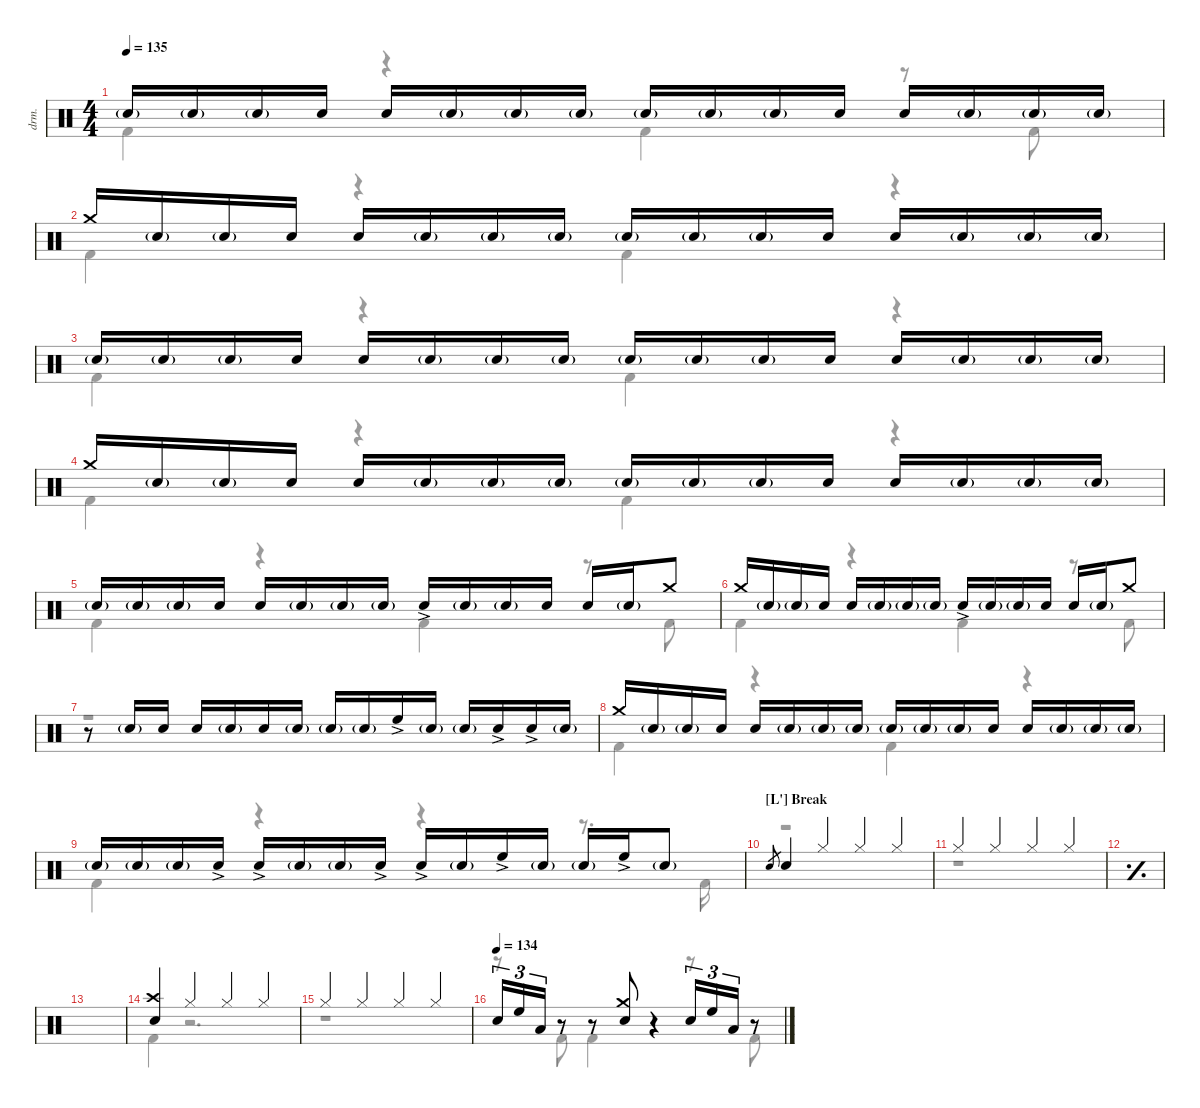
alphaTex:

\defaultSystemsLayout 4
\hideDynamics
\bracketExtendMode nobrackets
\track ("Drums" "drm.") {instrument percussion}
\staff {score}
\articulation defaults
\voice
\ts (4 4)
\tempo 135
\clef neutral
\ks c "Snare (hit) 2"{g}.16{dy mf} "Snare (hit) 2"{g}.16 "Snare (hit) 2"{g}.16 "Snare (hit) 2".16 "Snare (hit) 2".16 "Snare (hit) 2"{g}.16 "Snare (hit) 2"{g}.16 "Snare (hit) 2"{g}.16 "Snare (hit) 2"{g}.16 "Snare (hit) 2"{g}.16 "Snare (hit) 2"{g}.16 "Snare (hit) 2".16 "Snare (hit) 2".16 "Snare (hit) 2"{g}.16 "Snare (hit) 2"{g}.16 "Snare (hit) 2"{g}.16
|
"Crash medium (hit)".16 "Snare (hit) 2"{g}.16 "Snare (hit) 2"{g}.16 "Snare (hit) 2".16 "Snare (hit) 2".16 "Snare (hit) 2"{g}.16 "Snare (hit) 2"{g}.16 "Snare (hit) 2"{g}.16 "Snare (hit) 2"{g}.16 "Snare (hit) 2"{g}.16 "Snare (hit) 2"{g}.16 "Snare (hit) 2".16 "Snare (hit) 2".16 "Snare (hit) 2"{g}.16 "Snare (hit) 2"{g}.16 "Snare (hit) 2"{g}.16 |
"Snare (hit) 2"{g}.16 "Snare (hit) 2"{g}.16 "Snare (hit) 2"{g}.16 "Snare (hit) 2".16 "Snare (hit) 2".16 "Snare (hit) 2"{g}.16 "Snare (hit) 2"{g}.16 "Snare (hit) 2"{g}.16 "Snare (hit) 2"{g}.16 "Snare (hit) 2"{g}.16 "Snare (hit) 2"{g}.16 "Snare (hit) 2".16 "Snare (hit) 2".16 "Snare (hit) 2"{g}.16 "Snare (hit) 2"{g}.16 "Snare (hit) 2"{g}.16 |
"Crash medium (hit)".16 "Snare (hit) 2"{g}.16 "Snare (hit) 2"{g}.16 "Snare (hit) 2".16 "Snare (hit) 2".16 "Snare (hit) 2"{g}.16 "Snare (hit) 2"{g}.16 "Snare (hit) 2"{g}.16 "Snare (hit) 2"{g}.16 "Snare (hit) 2"{g}.16 "Snare (hit) 2"{g}.16 "Snare (hit) 2".16 "Snare (hit) 2".16 "Snare (hit) 2"{g}.16 "Snare (hit) 2"{g}.16 "Snare (hit) 2"{g}.16 |
"Snare (hit) 2"{g}.16 "Snare (hit) 2"{g}.16 "Snare (hit) 2"{g}.16 "Snare (hit) 2".16 "Snare (hit) 2".16 "Snare (hit) 2"{g}.16 "Snare (hit) 2"{g}.16 "Snare (hit) 2"{g}.16 "Snare (hit) 2"{ac}.16 "Snare (hit) 2"{g}.16 "Snare (hit) 2"{g}.16 "Snare (hit) 2".16 "Snare (hit) 2".16 "Snare (hit) 2"{g}.16 "Crash medium (hit)".8 |
"Crash medium (hit)".16 "Snare (hit) 2"{g}.16 "Snare (hit) 2"{g}.16 "Snare (hit) 2".16 "Snare (hit) 2".16 "Snare (hit) 2"{g}.16 "Snare (hit) 2"{g}.16 "Snare (hit) 2"{g}.16 "Snare (hit) 2"{ac}.16 "Snare (hit) 2"{g}.16 "Snare (hit) 2"{g}.16 "Snare (hit) 2".16 "Snare (hit) 2".16 "Snare (hit) 2"{g}.16 "Crash medium (hit)".8 |
r.8 "Snare (hit) 2"{g}.16 "Snare (hit) 2".16 "Snare (hit) 2".16 "Snare (hit) 2"{g}.16 "Snare (hit) 2".16 "Snare (hit) 2"{g}.16 "Snare (hit) 2"{g}.16 "Snare (hit) 2"{g}.16 "High Floor Tom (hit)"{ac}.16 "Snare (hit) 2"{g}.16 "Snare (hit) 2"{g}.16 "Snare (hit) 2"{ac}.16 "Snare (hit) 2"{ac}.16 "Snare (hit) 2"{g}.16 |
"Crash medium (hit)".16 "Snare (hit) 2"{g}.16 "Snare (hit) 2"{g}.16 "Snare (hit) 2".16 "Snare (hit) 2".16 "Snare (hit) 2"{g}.16 "Snare (hit) 2"{g}.16 "Snare (hit) 2"{g}.16 "Snare (hit) 2"{g}.16 "Snare (hit) 2"{g}.16 "Snare (hit) 2"{g}.16 "Snare (hit) 2".16 "Snare (hit) 2".16 "Snare (hit) 2"{g}.16 "Snare (hit) 2"{g}.16 "Snare (hit) 2"{g}.16 |
"Snare (hit) 2"{g}.16 "Snare (hit) 2"{g}.16 "Snare (hit) 2"{g}.16 "Snare (hit) 2"{ac}.16 "Snare (hit) 2"{ac}.16 "Snare (hit) 2"{g}.16 "Snare (hit) 2"{g}.16 "Snare (hit) 2"{ac}.16 "Snare (hit) 2"{ac}.16 "Snare (hit) 2"{g}.16 "High Floor Tom (hit)"{ac}.16 "Snare (hit) 2"{g}.16 "Snare (hit) 2"{g}.16 "High Floor Tom (hit)"{ac}.16 "Snare (hit) 2"{g}.8 |
\section ("L'" "Break")
"Snare (hit) 2".8{gr} "Snare (hit) 2".4 "Hi-Hat (closed)".4 "Hi-Hat (closed)".4 "Hi-Hat (closed)".4 |
"Hi-Hat (closed)".4 "Hi-Hat (closed)".4 "Hi-Hat (closed)".4 "Hi-Hat (closed)".4 |
\simile simple
|
|
\simile none
("Crash high (hit)" "Snare (hit) 2").4 "Hi-Hat (closed)".4 "Hi-Hat (closed)".4 "Hi-Hat (closed)".4 |
"Hi-Hat (closed)".4 "Hi-Hat (closed)".4 "Hi-Hat (closed)".4 "Hi-Hat (closed)".4 |
\tempo (134)
"Snare (hit) 2".16{tu (3 2)} "High Floor Tom (hit)".16{tu (3 2)} "Low Tom (hit)".16{tu (3 2)} r.8 r.8 ("Snare (hit) 2" "Crash medium (hit)").8 r.4 "Snare (hit) 2".16{tu (3 2)} "High Floor Tom (hit)".16{tu (3 2)} "Low Tom (hit)".16{tu (3 2)} r.8
\voice
\clef neutral
\ottava regular
\simile none
\ks c "Kick (hit) 2".4{dy mf}
r.4 "Kick (hit) 2".4 r.8 "Kick (hit) 2".8 |
"Kick (hit) 2".4 r.4 "Kick (hit) 2".4 r.4 |
"Kick (hit) 2".4 r.4 "Kick (hit) 2".4 r.4 |
"Kick (hit) 2".4 r.4 "Kick (hit) 2".4 r.4 |
"Kick (hit) 2".4 r.4 "Kick (hit) 2".4 r.8 "Kick (hit) 2".8 |
"Kick (hit) 2".4 r.4 "Kick (hit) 2".4 r.8 "Kick (hit) 2".8 |
r.1 |
"Kick (hit) 2".4 r.4 "Kick (hit) 2".4 r.4 |
"Kick (hit) 2".4 r.4 r.4 r.8{d} "Kick (hit) 2".16 |
r.1 |
r.1 |
\simile simple
|
|
\simile none "Kick (hit) 2".4
r.2{d} |
r.1 |
r.8 "Kick (hit) 2".8 "Kick (hit) 2".4 r.4 r.8 "Kick (hit) 2".8
